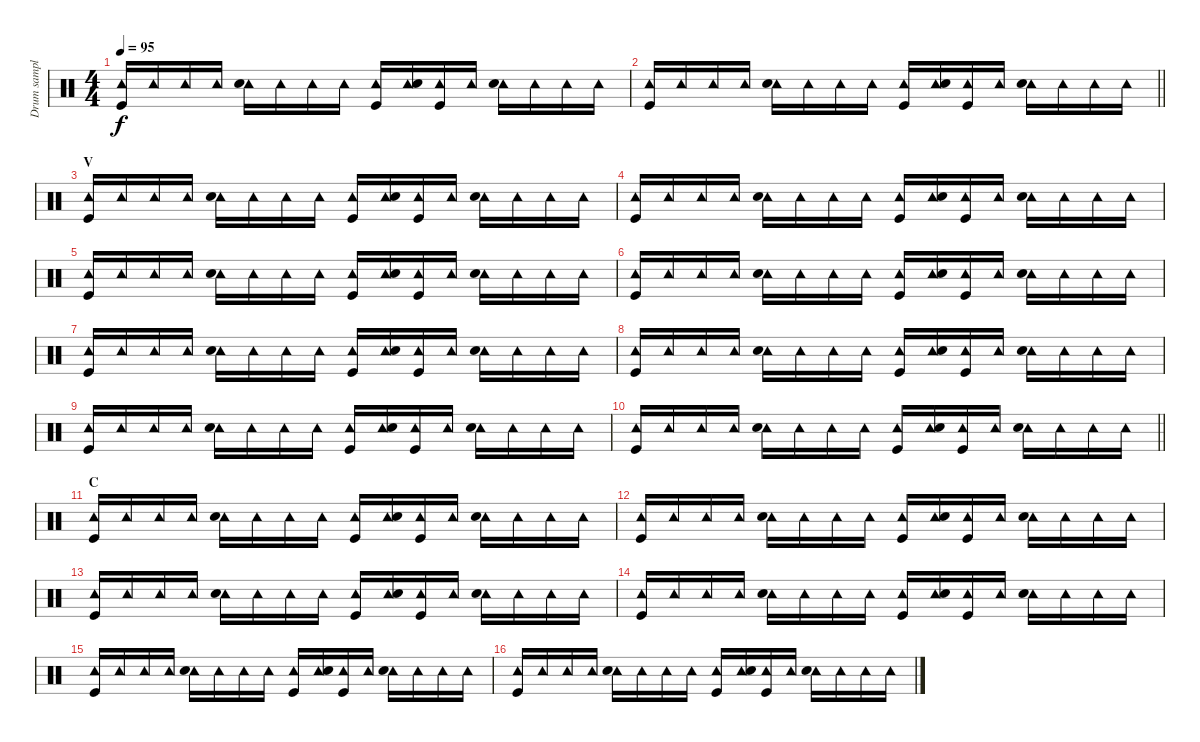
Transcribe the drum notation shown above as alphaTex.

\track ("Drum sample" "Drum sampl") {instrument percussion}
\staff {score}
\articulation defaults
\ts (4 4)
\tempo 95
\clef neutral
\ks c
("Tambourine (hit)" "Kick (hit)").16{dy f} "Tambourine (hit)".16 "Tambourine (hit)".16 "Tambourine (hit)".16 ("Tambourine (hit)" "Electric Snare (hit)").16 "Tambourine (hit)".16 "Tambourine (hit)".16 "Tambourine (hit)".16 ("Tambourine (hit)" "Kick (hit)").16 ("Tambourine (hit)" "Electric Snare (hit)").16 ("Tambourine (hit)" "Kick (hit)").16 "Tambourine (hit)".16 ("Tambourine (hit)" "Electric Snare (hit)").16 "Tambourine (hit)".16 "Tambourine (hit)".16 "Tambourine (hit)".16 |
\barLineRight lightlight
("Tambourine (hit)" "Kick (hit)").16 "Tambourine (hit)".16 "Tambourine (hit)".16 "Tambourine (hit)".16 ("Tambourine (hit)" "Electric Snare (hit)").16 "Tambourine (hit)".16 "Tambourine (hit)".16 "Tambourine (hit)".16 ("Tambourine (hit)" "Kick (hit)").16 ("Tambourine (hit)" "Electric Snare (hit)").16 ("Tambourine (hit)" "Kick (hit)").16 "Tambourine (hit)".16 ("Tambourine (hit)" "Electric Snare (hit)").16 "Tambourine (hit)".16 "Tambourine (hit)".16 "Tambourine (hit)".16 |
\section ("" "V")
("Tambourine (hit)" "Kick (hit)").16 "Tambourine (hit)".16 "Tambourine (hit)".16 "Tambourine (hit)".16 ("Tambourine (hit)" "Electric Snare (hit)").16 "Tambourine (hit)".16 "Tambourine (hit)".16 "Tambourine (hit)".16 ("Tambourine (hit)" "Kick (hit)").16 ("Tambourine (hit)" "Electric Snare (hit)").16 ("Tambourine (hit)" "Kick (hit)").16 "Tambourine (hit)".16 ("Tambourine (hit)" "Electric Snare (hit)").16 "Tambourine (hit)".16 "Tambourine (hit)".16 "Tambourine (hit)".16 |
("Tambourine (hit)" "Kick (hit)").16 "Tambourine (hit)".16 "Tambourine (hit)".16 "Tambourine (hit)".16 ("Tambourine (hit)" "Electric Snare (hit)").16 "Tambourine (hit)".16 "Tambourine (hit)".16 "Tambourine (hit)".16 ("Tambourine (hit)" "Kick (hit)").16 ("Tambourine (hit)" "Electric Snare (hit)").16 ("Tambourine (hit)" "Kick (hit)").16 "Tambourine (hit)".16 ("Tambourine (hit)" "Electric Snare (hit)").16 "Tambourine (hit)".16 "Tambourine (hit)".16 "Tambourine (hit)".16 |
("Tambourine (hit)" "Kick (hit)").16 "Tambourine (hit)".16 "Tambourine (hit)".16 "Tambourine (hit)".16 ("Tambourine (hit)" "Electric Snare (hit)").16 "Tambourine (hit)".16 "Tambourine (hit)".16 "Tambourine (hit)".16 ("Tambourine (hit)" "Kick (hit)").16 ("Tambourine (hit)" "Electric Snare (hit)").16 ("Tambourine (hit)" "Kick (hit)").16 "Tambourine (hit)".16 ("Tambourine (hit)" "Electric Snare (hit)").16 "Tambourine (hit)".16 "Tambourine (hit)".16 "Tambourine (hit)".16 |
("Tambourine (hit)" "Kick (hit)").16 "Tambourine (hit)".16 "Tambourine (hit)".16 "Tambourine (hit)".16 ("Tambourine (hit)" "Electric Snare (hit)").16 "Tambourine (hit)".16 "Tambourine (hit)".16 "Tambourine (hit)".16 ("Tambourine (hit)" "Kick (hit)").16 ("Tambourine (hit)" "Electric Snare (hit)").16 ("Tambourine (hit)" "Kick (hit)").16 "Tambourine (hit)".16 ("Tambourine (hit)" "Electric Snare (hit)").16 "Tambourine (hit)".16 "Tambourine (hit)".16 "Tambourine (hit)".16 |
("Tambourine (hit)" "Kick (hit)").16 "Tambourine (hit)".16 "Tambourine (hit)".16 "Tambourine (hit)".16 ("Tambourine (hit)" "Electric Snare (hit)").16 "Tambourine (hit)".16 "Tambourine (hit)".16 "Tambourine (hit)".16 ("Tambourine (hit)" "Kick (hit)").16 ("Tambourine (hit)" "Electric Snare (hit)").16 ("Tambourine (hit)" "Kick (hit)").16 "Tambourine (hit)".16 ("Tambourine (hit)" "Electric Snare (hit)").16 "Tambourine (hit)".16 "Tambourine (hit)".16 "Tambourine (hit)".16 |
("Tambourine (hit)" "Kick (hit)").16 "Tambourine (hit)".16 "Tambourine (hit)".16 "Tambourine (hit)".16 ("Tambourine (hit)" "Electric Snare (hit)").16 "Tambourine (hit)".16 "Tambourine (hit)".16 "Tambourine (hit)".16 ("Tambourine (hit)" "Kick (hit)").16 ("Tambourine (hit)" "Electric Snare (hit)").16 ("Tambourine (hit)" "Kick (hit)").16 "Tambourine (hit)".16 ("Tambourine (hit)" "Electric Snare (hit)").16 "Tambourine (hit)".16 "Tambourine (hit)".16 "Tambourine (hit)".16 |
("Tambourine (hit)" "Kick (hit)").16 "Tambourine (hit)".16 "Tambourine (hit)".16 "Tambourine (hit)".16 ("Tambourine (hit)" "Electric Snare (hit)").16 "Tambourine (hit)".16 "Tambourine (hit)".16 "Tambourine (hit)".16 ("Tambourine (hit)" "Kick (hit)").16 ("Tambourine (hit)" "Electric Snare (hit)").16 ("Tambourine (hit)" "Kick (hit)").16 "Tambourine (hit)".16 ("Tambourine (hit)" "Electric Snare (hit)").16 "Tambourine (hit)".16 "Tambourine (hit)".16 "Tambourine (hit)".16 |
\barLineRight lightlight
("Tambourine (hit)" "Kick (hit)").16 "Tambourine (hit)".16 "Tambourine (hit)".16 "Tambourine (hit)".16 ("Tambourine (hit)" "Electric Snare (hit)").16 "Tambourine (hit)".16 "Tambourine (hit)".16 "Tambourine (hit)".16 ("Tambourine (hit)" "Kick (hit)").16 ("Tambourine (hit)" "Electric Snare (hit)").16 ("Tambourine (hit)" "Kick (hit)").16 "Tambourine (hit)".16 ("Tambourine (hit)" "Electric Snare (hit)").16 "Tambourine (hit)".16 "Tambourine (hit)".16 "Tambourine (hit)".16 |
\section ("" "C")
("Tambourine (hit)" "Kick (hit)").16 "Tambourine (hit)".16 "Tambourine (hit)".16 "Tambourine (hit)".16 ("Tambourine (hit)" "Electric Snare (hit)").16 "Tambourine (hit)".16 "Tambourine (hit)".16 "Tambourine (hit)".16 ("Tambourine (hit)" "Kick (hit)").16 ("Tambourine (hit)" "Electric Snare (hit)").16 ("Tambourine (hit)" "Kick (hit)").16 "Tambourine (hit)".16 ("Tambourine (hit)" "Electric Snare (hit)").16 "Tambourine (hit)".16 "Tambourine (hit)".16 "Tambourine (hit)".16 |
("Tambourine (hit)" "Kick (hit)").16 "Tambourine (hit)".16 "Tambourine (hit)".16 "Tambourine (hit)".16 ("Tambourine (hit)" "Electric Snare (hit)").16 "Tambourine (hit)".16 "Tambourine (hit)".16 "Tambourine (hit)".16 ("Tambourine (hit)" "Kick (hit)").16 ("Tambourine (hit)" "Electric Snare (hit)").16 ("Tambourine (hit)" "Kick (hit)").16 "Tambourine (hit)".16 ("Tambourine (hit)" "Electric Snare (hit)").16 "Tambourine (hit)".16 "Tambourine (hit)".16 "Tambourine (hit)".16 |
("Tambourine (hit)" "Kick (hit)").16 "Tambourine (hit)".16 "Tambourine (hit)".16 "Tambourine (hit)".16 ("Tambourine (hit)" "Electric Snare (hit)").16 "Tambourine (hit)".16 "Tambourine (hit)".16 "Tambourine (hit)".16 ("Tambourine (hit)" "Kick (hit)").16 ("Tambourine (hit)" "Electric Snare (hit)").16 ("Tambourine (hit)" "Kick (hit)").16 "Tambourine (hit)".16 ("Tambourine (hit)" "Electric Snare (hit)").16 "Tambourine (hit)".16 "Tambourine (hit)".16 "Tambourine (hit)".16 |
("Tambourine (hit)" "Kick (hit)").16 "Tambourine (hit)".16 "Tambourine (hit)".16 "Tambourine (hit)".16 ("Tambourine (hit)" "Electric Snare (hit)").16 "Tambourine (hit)".16 "Tambourine (hit)".16 "Tambourine (hit)".16 ("Tambourine (hit)" "Kick (hit)").16 ("Tambourine (hit)" "Electric Snare (hit)").16 ("Tambourine (hit)" "Kick (hit)").16 "Tambourine (hit)".16 ("Tambourine (hit)" "Electric Snare (hit)").16 "Tambourine (hit)".16 "Tambourine (hit)".16 "Tambourine (hit)".16 |
("Tambourine (hit)" "Kick (hit)").16 "Tambourine (hit)".16 "Tambourine (hit)".16 "Tambourine (hit)".16 ("Tambourine (hit)" "Electric Snare (hit)").16 "Tambourine (hit)".16 "Tambourine (hit)".16 "Tambourine (hit)".16 ("Tambourine (hit)" "Kick (hit)").16 ("Tambourine (hit)" "Electric Snare (hit)").16 ("Tambourine (hit)" "Kick (hit)").16 "Tambourine (hit)".16 ("Tambourine (hit)" "Electric Snare (hit)").16 "Tambourine (hit)".16 "Tambourine (hit)".16 "Tambourine (hit)".16 |
("Tambourine (hit)" "Kick (hit)").16 "Tambourine (hit)".16 "Tambourine (hit)".16 "Tambourine (hit)".16 ("Tambourine (hit)" "Electric Snare (hit)").16 "Tambourine (hit)".16 "Tambourine (hit)".16 "Tambourine (hit)".16 ("Tambourine (hit)" "Kick (hit)").16 ("Tambourine (hit)" "Electric Snare (hit)").16 ("Tambourine (hit)" "Kick (hit)").16 "Tambourine (hit)".16 ("Tambourine (hit)" "Electric Snare (hit)").16 "Tambourine (hit)".16 "Tambourine (hit)".16 "Tambourine (hit)".16
